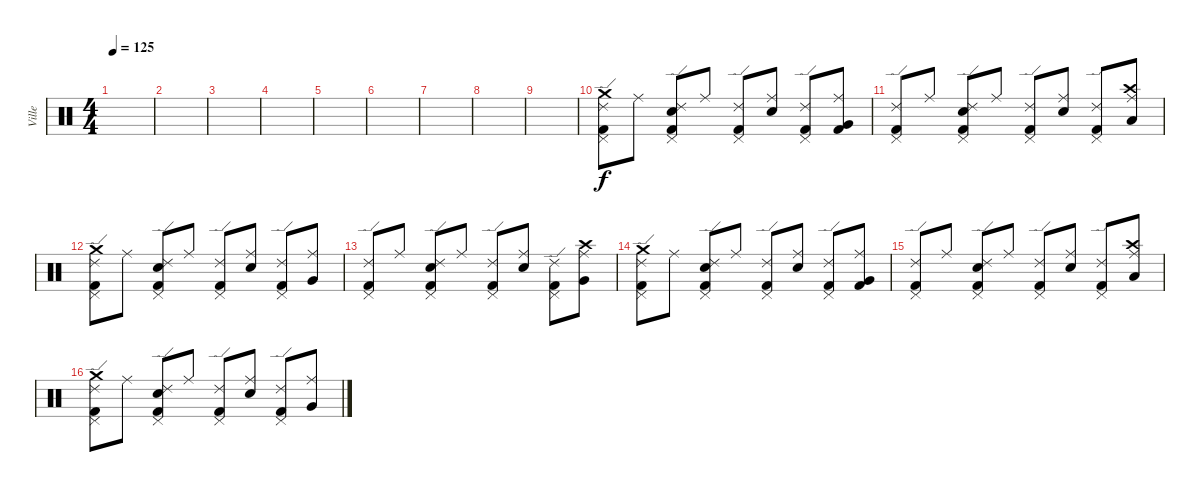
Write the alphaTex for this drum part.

\track ("Ville" "Ville") {instrument percussion}
\staff {score}
\articulation defaults
\ts (4 4)
\tempo 125
\clef neutral
\ks c
|
|
|
|
|
|
|
|
|
("Crash medium (hit)" "Pedal Hi-Hat (hit)" "Ride (edge) 2" "Kick (hit) 2").8 "Ride (middle)".8 ("Snare (hit) 2" "Pedal Hi-Hat (hit)" "Ride (edge) 2" "Kick (hit) 2").8 "Ride (middle)".8 ("Pedal Hi-Hat (hit)" "Ride (edge) 2" "Kick (hit) 2").8 ("Snare (hit) 2" "Ride (middle)").8 ("Pedal Hi-Hat (hit)" "Ride (edge) 2" "Kick (hit) 2").8 ("Very Low Tom (hit)" "Ride (middle)" "Kick (hit) 2").8 |
("Pedal Hi-Hat (hit)" "Ride (edge) 2" "Kick (hit) 2").8 "Ride (middle)".8 ("Snare (hit) 2" "Pedal Hi-Hat (hit)" "Ride (edge) 2" "Kick (hit) 2").8 "Ride (middle)".8 ("Pedal Hi-Hat (hit)" "Ride (edge) 2" "Kick (hit) 2").8 ("Snare (hit) 2" "Ride (middle)").8 ("Pedal Hi-Hat (hit)" "Ride (edge) 2" "Kick (hit) 2").8 ("Crash high (hit)" "Low Floor Tom (hit)" "Ride (middle)").8 |
("Crash medium (hit)" "Pedal Hi-Hat (hit)" "Ride (edge) 2" "Kick (hit) 2").8 "Ride (middle)".8 ("Snare (hit) 2" "Pedal Hi-Hat (hit)" "Ride (edge) 2" "Kick (hit) 2").8 "Ride (middle)".8 ("Pedal Hi-Hat (hit)" "Ride (edge) 2" "Kick (hit) 2").8 ("Snare (hit) 2" "Ride (middle)").8 ("Pedal Hi-Hat (hit)" "Ride (edge) 2" "Kick (hit) 2").8 ("Very Low Tom (hit)" "Ride (middle)").8 |
("Pedal Hi-Hat (hit)" "Ride (edge) 2" "Kick (hit) 2").8 "Ride (middle)".8 ("Snare (hit) 2" "Pedal Hi-Hat (hit)" "Ride (edge) 2" "Kick (hit) 2").8 "Ride (middle)".8 ("Pedal Hi-Hat (hit)" "Ride (edge) 2" "Kick (hit) 2").8 ("Snare (hit) 2" "Ride (middle)").8 ("Pedal Hi-Hat (hit)" "Ride (edge) 2" "Kick (hit) 2").8 ("Crash high (hit)" "Very Low Tom (hit)" "Ride (middle)").8 |
("Crash medium (hit)" "Pedal Hi-Hat (hit)" "Ride (edge) 2" "Kick (hit) 2").8 "Ride (middle)".8 ("Snare (hit) 2" "Pedal Hi-Hat (hit)" "Ride (edge) 2" "Kick (hit) 2").8 "Ride (middle)".8 ("Pedal Hi-Hat (hit)" "Ride (edge) 2" "Kick (hit) 2").8 ("Snare (hit) 2" "Ride (middle)").8 ("Pedal Hi-Hat (hit)" "Ride (edge) 2" "Kick (hit) 2").8 ("Very Low Tom (hit)" "Ride (middle)" "Kick (hit) 2").8 |
("Pedal Hi-Hat (hit)" "Ride (edge) 2" "Kick (hit) 2").8 "Ride (middle)".8 ("Snare (hit) 2" "Pedal Hi-Hat (hit)" "Ride (edge) 2" "Kick (hit) 2").8 "Ride (middle)".8 ("Pedal Hi-Hat (hit)" "Ride (edge) 2" "Kick (hit) 2").8 ("Snare (hit) 2" "Ride (middle)").8 ("Pedal Hi-Hat (hit)" "Ride (edge) 2" "Kick (hit) 2").8 ("Crash high (hit)" "Low Floor Tom (hit)" "Ride (middle)").8 |
("Crash medium (hit)" "Pedal Hi-Hat (hit)" "Ride (edge) 2" "Kick (hit) 2").8 "Ride (middle)".8 ("Snare (hit) 2" "Pedal Hi-Hat (hit)" "Ride (edge) 2" "Kick (hit) 2").8 "Ride (middle)".8 ("Pedal Hi-Hat (hit)" "Ride (edge) 2" "Kick (hit) 2").8 ("Snare (hit) 2" "Ride (middle)").8 ("Pedal Hi-Hat (hit)" "Ride (edge) 2" "Kick (hit) 2").8 ("Very Low Tom (hit)" "Ride (middle)").8
